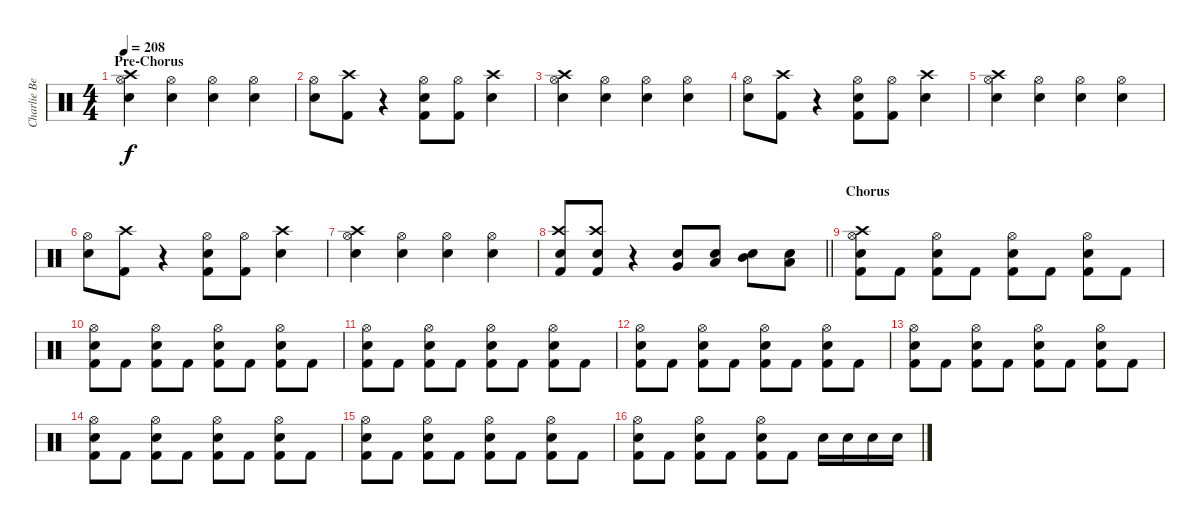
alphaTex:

\track ("Charlie Benate" "Charlie Be") {instrument percussion}
\staff {score}
\articulation defaults
\ts (4 4)
\section ("" "Pre-Chorus")
\tempo 208
\clef neutral
\ks c
("Hi-Hat (open)" "Electric Snare (hit)" "Crash high (hit)").4{dy f} ("Hi-Hat (open)" "Electric Snare (hit)").4 ("Hi-Hat (open)" "Electric Snare (hit)").4 ("Hi-Hat (open)" "Electric Snare (hit)").4 |
("Hi-Hat (open)" "Electric Snare (hit)").8 ("Crash high (hit)" "Kick (hit) 2").8 r.4 ("Hi-Hat (open)" "Electric Snare (hit)" "Kick (hit) 2").8 ("Hi-Hat (open)" "Kick (hit) 2").8 ("Crash high (hit)" "Electric Snare (hit)").4 |
("Hi-Hat (open)" "Electric Snare (hit)" "Crash high (hit)").4 ("Hi-Hat (open)" "Electric Snare (hit)").4 ("Hi-Hat (open)" "Electric Snare (hit)").4 ("Hi-Hat (open)" "Electric Snare (hit)").4 |
("Hi-Hat (open)" "Electric Snare (hit)").8 ("Crash high (hit)" "Kick (hit) 2").8 r.4 ("Hi-Hat (open)" "Electric Snare (hit)" "Kick (hit) 2").8 ("Hi-Hat (open)" "Kick (hit) 2").8 ("Crash high (hit)" "Electric Snare (hit)").4 |
("Hi-Hat (open)" "Electric Snare (hit)" "Crash high (hit)").4 ("Hi-Hat (open)" "Electric Snare (hit)").4 ("Hi-Hat (open)" "Electric Snare (hit)").4 ("Hi-Hat (open)" "Electric Snare (hit)").4 |
("Hi-Hat (open)" "Electric Snare (hit)").8 ("Crash high (hit)" "Kick (hit) 2").8 r.4 ("Hi-Hat (open)" "Electric Snare (hit)" "Kick (hit) 2").8 ("Hi-Hat (open)" "Kick (hit) 2").8 ("Crash high (hit)" "Electric Snare (hit)").4 |
("Hi-Hat (open)" "Electric Snare (hit)" "Crash high (hit)").4 ("Hi-Hat (open)" "Electric Snare (hit)").4 ("Hi-Hat (open)" "Electric Snare (hit)").4 ("Hi-Hat (open)" "Electric Snare (hit)").4 |
\barLineRight lightlight
("Crash high (hit)" "Electric Snare (hit)" "Kick (hit) 2").8 ("Crash high (hit)" "Electric Snare (hit)" "Kick (hit) 2").8 r.4 ("Very Low Tom (hit)" "Electric Snare (hit)").8 ("Low Tom (hit)" "Electric Snare (hit)").8 ("Mid Tom (hit)" "Electric Snare (hit)").8 ("Low Floor Tom (hit)" "Electric Snare (hit)").8 |
\section ("" "Chorus")
("Hi-Hat (open)" "Electric Snare (hit)" "Kick (hit) 2" "Crash high (hit)").8 "Kick (hit) 2".8 ("Hi-Hat (open)" "Electric Snare (hit)" "Kick (hit) 2").8 "Kick (hit) 2".8 ("Hi-Hat (open)" "Electric Snare (hit)" "Kick (hit) 2").8 "Kick (hit) 2".8 ("Hi-Hat (open)" "Electric Snare (hit)" "Kick (hit) 2").8 "Kick (hit) 2".8 |
("Hi-Hat (open)" "Electric Snare (hit)" "Kick (hit) 2").8 "Kick (hit) 2".8 ("Hi-Hat (open)" "Electric Snare (hit)" "Kick (hit) 2").8 "Kick (hit) 2".8 ("Hi-Hat (open)" "Electric Snare (hit)" "Kick (hit) 2").8 "Kick (hit) 2".8 ("Hi-Hat (open)" "Electric Snare (hit)" "Kick (hit) 2").8 "Kick (hit) 2".8 |
("Hi-Hat (open)" "Electric Snare (hit)" "Kick (hit) 2").8 "Kick (hit) 2".8 ("Hi-Hat (open)" "Electric Snare (hit)" "Kick (hit) 2").8 "Kick (hit) 2".8 ("Hi-Hat (open)" "Electric Snare (hit)" "Kick (hit) 2").8 "Kick (hit) 2".8 ("Hi-Hat (open)" "Electric Snare (hit)" "Kick (hit) 2").8 "Kick (hit) 2".8 |
("Hi-Hat (open)" "Electric Snare (hit)" "Kick (hit) 2").8 "Kick (hit) 2".8 ("Hi-Hat (open)" "Electric Snare (hit)" "Kick (hit) 2").8 "Kick (hit) 2".8 ("Hi-Hat (open)" "Electric Snare (hit)" "Kick (hit) 2").8 "Kick (hit) 2".8 ("Hi-Hat (open)" "Electric Snare (hit)" "Kick (hit) 2").8 "Kick (hit) 2".8 |
("Hi-Hat (open)" "Electric Snare (hit)" "Kick (hit) 2").8 "Kick (hit) 2".8 ("Hi-Hat (open)" "Electric Snare (hit)" "Kick (hit) 2").8 "Kick (hit) 2".8 ("Hi-Hat (open)" "Electric Snare (hit)" "Kick (hit) 2").8 "Kick (hit) 2".8 ("Hi-Hat (open)" "Electric Snare (hit)" "Kick (hit) 2").8 "Kick (hit) 2".8 |
("Hi-Hat (open)" "Electric Snare (hit)" "Kick (hit) 2").8 "Kick (hit) 2".8 ("Hi-Hat (open)" "Electric Snare (hit)" "Kick (hit) 2").8 "Kick (hit) 2".8 ("Hi-Hat (open)" "Electric Snare (hit)" "Kick (hit) 2").8 "Kick (hit) 2".8 ("Hi-Hat (open)" "Electric Snare (hit)" "Kick (hit) 2").8 "Kick (hit) 2".8 |
("Hi-Hat (open)" "Electric Snare (hit)" "Kick (hit) 2").8 "Kick (hit) 2".8 ("Hi-Hat (open)" "Electric Snare (hit)" "Kick (hit) 2").8 "Kick (hit) 2".8 ("Hi-Hat (open)" "Electric Snare (hit)" "Kick (hit) 2").8 "Kick (hit) 2".8 ("Hi-Hat (open)" "Electric Snare (hit)" "Kick (hit) 2").8 "Kick (hit) 2".8 |
("Hi-Hat (open)" "Electric Snare (hit)" "Kick (hit) 2").8 "Kick (hit) 2".8 ("Hi-Hat (open)" "Electric Snare (hit)" "Kick (hit) 2").8 "Kick (hit) 2".8 ("Hi-Hat (open)" "Electric Snare (hit)" "Kick (hit) 2").8 "Kick (hit) 2".8 "Electric Snare (hit)".16 "Electric Snare (hit)".16 "Electric Snare (hit)".16 "Electric Snare (hit)".16
